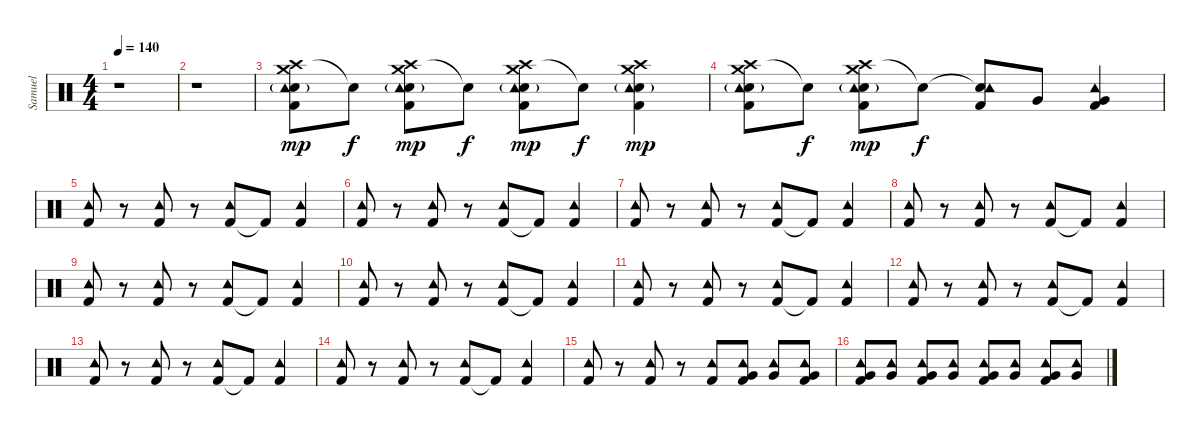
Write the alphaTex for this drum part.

\track ("Samuel" "Samuel") {instrument percussion}
\staff {score}
\articulation defaults
\ts (4 4)
\tempo 140
\clef neutral
\ks c
r.1{dy mp} |
r.1 |
("Crash high (hit)" "Crash medium (hit)" "Snare (hit) 2"{g} "Kick (hit) 2" "Tambourine (hit)").8 "Snare (hit)"{t}.8{dy f} ("Crash high (hit)" "Crash medium (hit)" "Snare (hit) 2"{g} "Kick (hit) 2" "Tambourine (hit)").8{dy mp} "Snare (hit)"{t}.8{dy f} ("Crash high (hit)" "Crash medium (hit)" "Snare (hit) 2"{g} "Kick (hit) 2" "Tambourine (hit)").8{dy mp} "Snare (hit)"{t}.8{dy f} ("Crash high (hit)" "Crash medium (hit)" "Snare (hit) 2"{g} "Kick (hit) 2" "Tambourine (hit)").4{dy mp} |
("Crash high (hit)" "Crash medium (hit)" "Snare (hit) 2"{g} "Kick (hit) 2" "Tambourine (hit)").8 "Snare (hit)"{t}.8{dy f} ("Crash high (hit)" "Crash medium (hit)" "Snare (hit) 2"{g} "Kick (hit) 2" "Tambourine (hit)").8{dy mp} "Snare (hit)"{t}.8{dy f} ("Snare (hit)"{t} "Kick (hit) 2" "Tambourine (hit)").8 "Very Low Tom (hit)".8 ("Very Low Tom (hit)" "Kick (hit) 2" "Tambourine (hit)").4 |
("Kick (hit) 2" "Tambourine (hit)").8 r.8 ("Kick (hit) 2" "Tambourine (hit)").8 r.8 ("Kick (hit) 2" "Tambourine (hit)").8 "Kick (hit) 2"{t}.8 ("Kick (hit) 2" "Tambourine (hit)").4 |
("Kick (hit) 2" "Tambourine (hit)").8 r.8 ("Kick (hit) 2" "Tambourine (hit)").8 r.8 ("Kick (hit) 2" "Tambourine (hit)").8 "Kick (hit) 2"{t}.8 ("Kick (hit) 2" "Tambourine (hit)").4 |
("Kick (hit) 2" "Tambourine (hit)").8 r.8 ("Kick (hit) 2" "Tambourine (hit)").8 r.8 ("Kick (hit) 2" "Tambourine (hit)").8 "Kick (hit) 2"{t}.8 ("Kick (hit) 2" "Tambourine (hit)").4 |
("Kick (hit) 2" "Tambourine (hit)").8 r.8 ("Kick (hit) 2" "Tambourine (hit)").8 r.8 ("Kick (hit) 2" "Tambourine (hit)").8 "Kick (hit) 2"{t}.8 ("Kick (hit) 2" "Tambourine (hit)").4 |
("Kick (hit) 2" "Tambourine (hit)").8 r.8 ("Kick (hit) 2" "Tambourine (hit)").8 r.8 ("Kick (hit) 2" "Tambourine (hit)").8 "Kick (hit) 2"{t}.8 ("Kick (hit) 2" "Tambourine (hit)").4 |
("Kick (hit) 2" "Tambourine (hit)").8 r.8 ("Kick (hit) 2" "Tambourine (hit)").8 r.8 ("Kick (hit) 2" "Tambourine (hit)").8 "Kick (hit) 2"{t}.8 ("Kick (hit) 2" "Tambourine (hit)").4 |
("Kick (hit) 2" "Tambourine (hit)").8 r.8 ("Kick (hit) 2" "Tambourine (hit)").8 r.8 ("Kick (hit) 2" "Tambourine (hit)").8 "Kick (hit) 2"{t}.8 ("Kick (hit) 2" "Tambourine (hit)").4 |
("Kick (hit) 2" "Tambourine (hit)").8 r.8 ("Kick (hit) 2" "Tambourine (hit)").8 r.8 ("Kick (hit) 2" "Tambourine (hit)").8 "Kick (hit) 2"{t}.8 ("Kick (hit) 2" "Tambourine (hit)").4 |
("Kick (hit) 2" "Tambourine (hit)").8 r.8 ("Kick (hit) 2" "Tambourine (hit)").8 r.8 ("Kick (hit) 2" "Tambourine (hit)").8 "Kick (hit) 2"{t}.8 ("Kick (hit) 2" "Tambourine (hit)").4 |
("Kick (hit) 2" "Tambourine (hit)").8 r.8 ("Kick (hit) 2" "Tambourine (hit)").8 r.8 ("Kick (hit) 2" "Tambourine (hit)").8 "Kick (hit) 2"{t}.8 ("Kick (hit) 2" "Tambourine (hit)").4 |
("Kick (hit) 2" "Tambourine (hit)").8 r.8 ("Kick (hit) 2" "Tambourine (hit)").8 r.8 ("Kick (hit) 2" "Tambourine (hit)").8 ("Very Low Tom (hit)" "Kick (hit) 2" "Tambourine (hit)").8 ("Very Low Tom (hit)" "Tambourine (hit)").8 ("Very Low Tom (hit)" "Kick (hit) 2" "Tambourine (hit)").8 |
("Very Low Tom (hit)" "Kick (hit) 2" "Tambourine (hit)").8 ("Very Low Tom (hit)" "Tambourine (hit)").8 ("Very Low Tom (hit)" "Kick (hit) 2" "Tambourine (hit)").8 ("Very Low Tom (hit)" "Tambourine (hit)").8 ("Very Low Tom (hit)" "Kick (hit) 2" "Tambourine (hit)").8 ("Very Low Tom (hit)" "Tambourine (hit)").8 ("Very Low Tom (hit)" "Kick (hit) 2" "Tambourine (hit)").8 ("Very Low Tom (hit)" "Tambourine (hit)").8
